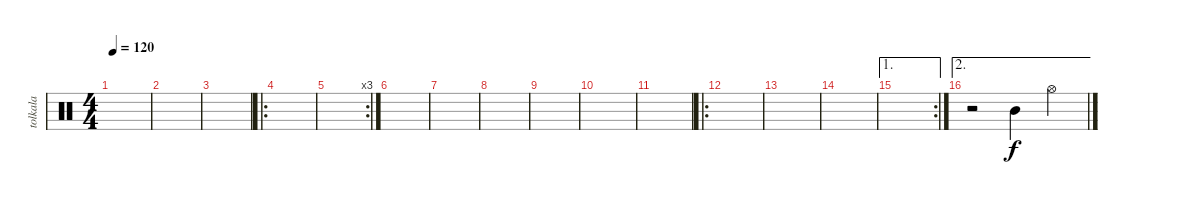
\track ("tolkala" "tolkala") {instrument percussion}
\staff {score}
\articulation defaults
\ts (4 4)
\tempo 120
\clef neutral
\ks c
|
|
|
\ro
|
\rc 3
|
|
|
|
|
|
|
\ro
|
|
|
\ae 1
\rc 2
|
\ae 2
r.2 "Mid Tom (hit)".4 "Hi-Hat (open)".4
